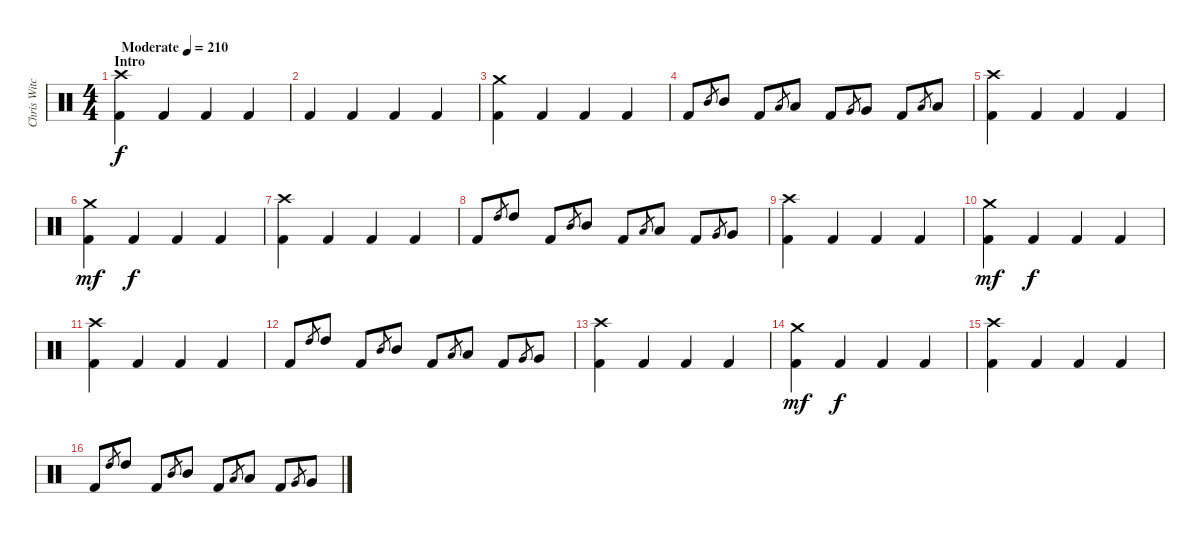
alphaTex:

\track ("Chris Witchunter" "Chris Witc") {instrument percussion}
\staff {score}
\articulation defaults
\ts (4 4)
\section ("" "Intro")
\tempo (210 "Moderate")
\tempo 208
\tempo (210 "Moderate")
\clef neutral
\ks c
("Crash high (hit)" "Kick (hit) 2").4{dy f} "Kick (hit) 2".4 "Kick (hit) 2".4 "Kick (hit) 2".4 |
"Kick (hit) 2".4 "Kick (hit) 2".4 "Kick (hit) 2".4 "Kick (hit) 2".4 |
("Crash medium (hit)" "Kick (hit) 2").4 "Kick (hit) 2".4 "Kick (hit) 2".4 "Kick (hit) 2".4 |
"Kick (hit) 2".8 "Mid Tom (hit)".8{gr} "Mid Tom (hit)".8 "Kick (hit) 2".8 "Low Tom (hit)".8{gr} "Low Tom (hit)".8 "Kick (hit) 2".8 "Very Low Tom (hit)".8{gr} "Very Low Tom (hit)".8 "Kick (hit) 2".8 "Low Floor Tom (hit)".8{gr} "Low Floor Tom (hit)".8 |
("Crash high (hit)" "Kick (hit) 2").4 "Kick (hit) 2".4 "Kick (hit) 2".4 "Kick (hit) 2".4 |
("Crash medium (hit)" "Kick (hit) 2").4{dy mf} "Kick (hit) 2".4{dy f} "Kick (hit) 2".4 "Kick (hit) 2".4 |
("Crash high (hit)" "Kick (hit) 2").4 "Kick (hit) 2".4 "Kick (hit) 2".4 "Kick (hit) 2".4 |
"Kick (hit) 2".8 "High Tom (hit)".8{gr} "High Tom (hit)".8 "Kick (hit) 2".8 "Mid Tom (hit)".8{gr} "Mid Tom (hit)".8 "Kick (hit) 2".8 "Low Tom (hit)".8{gr} "Low Tom (hit)".8 "Kick (hit) 2".8 "Very Low Tom (hit)".8{gr} "Very Low Tom (hit)".8 |
("Crash high (hit)" "Kick (hit) 2").4 "Kick (hit) 2".4 "Kick (hit) 2".4 "Kick (hit) 2".4 |
("Crash medium (hit)" "Kick (hit) 2").4{dy mf} "Kick (hit) 2".4{dy f} "Kick (hit) 2".4 "Kick (hit) 2".4 |
("Crash high (hit)" "Kick (hit) 2").4 "Kick (hit) 2".4 "Kick (hit) 2".4 "Kick (hit) 2".4 |
"Kick (hit) 2".8 "High Tom (hit)".8{gr} "High Tom (hit)".8 "Kick (hit) 2".8 "Mid Tom (hit)".8{gr} "Mid Tom (hit)".8 "Kick (hit) 2".8 "Low Tom (hit)".8{gr} "Low Tom (hit)".8 "Kick (hit) 2".8 "Very Low Tom (hit)".8{gr} "Very Low Tom (hit)".8 |
("Crash high (hit)" "Kick (hit) 2").4 "Kick (hit) 2".4 "Kick (hit) 2".4 "Kick (hit) 2".4 |
("Crash medium (hit)" "Kick (hit) 2").4{dy mf} "Kick (hit) 2".4{dy f} "Kick (hit) 2".4 "Kick (hit) 2".4 |
("Crash high (hit)" "Kick (hit) 2").4 "Kick (hit) 2".4 "Kick (hit) 2".4 "Kick (hit) 2".4 |
"Kick (hit) 2".8 "High Tom (hit)".8{gr} "High Tom (hit)".8 "Kick (hit) 2".8 "Mid Tom (hit)".8{gr} "Mid Tom (hit)".8 "Kick (hit) 2".8 "Low Tom (hit)".8{gr} "Low Tom (hit)".8 "Kick (hit) 2".8 "Very Low Tom (hit)".8{gr} "Very Low Tom (hit)".8
